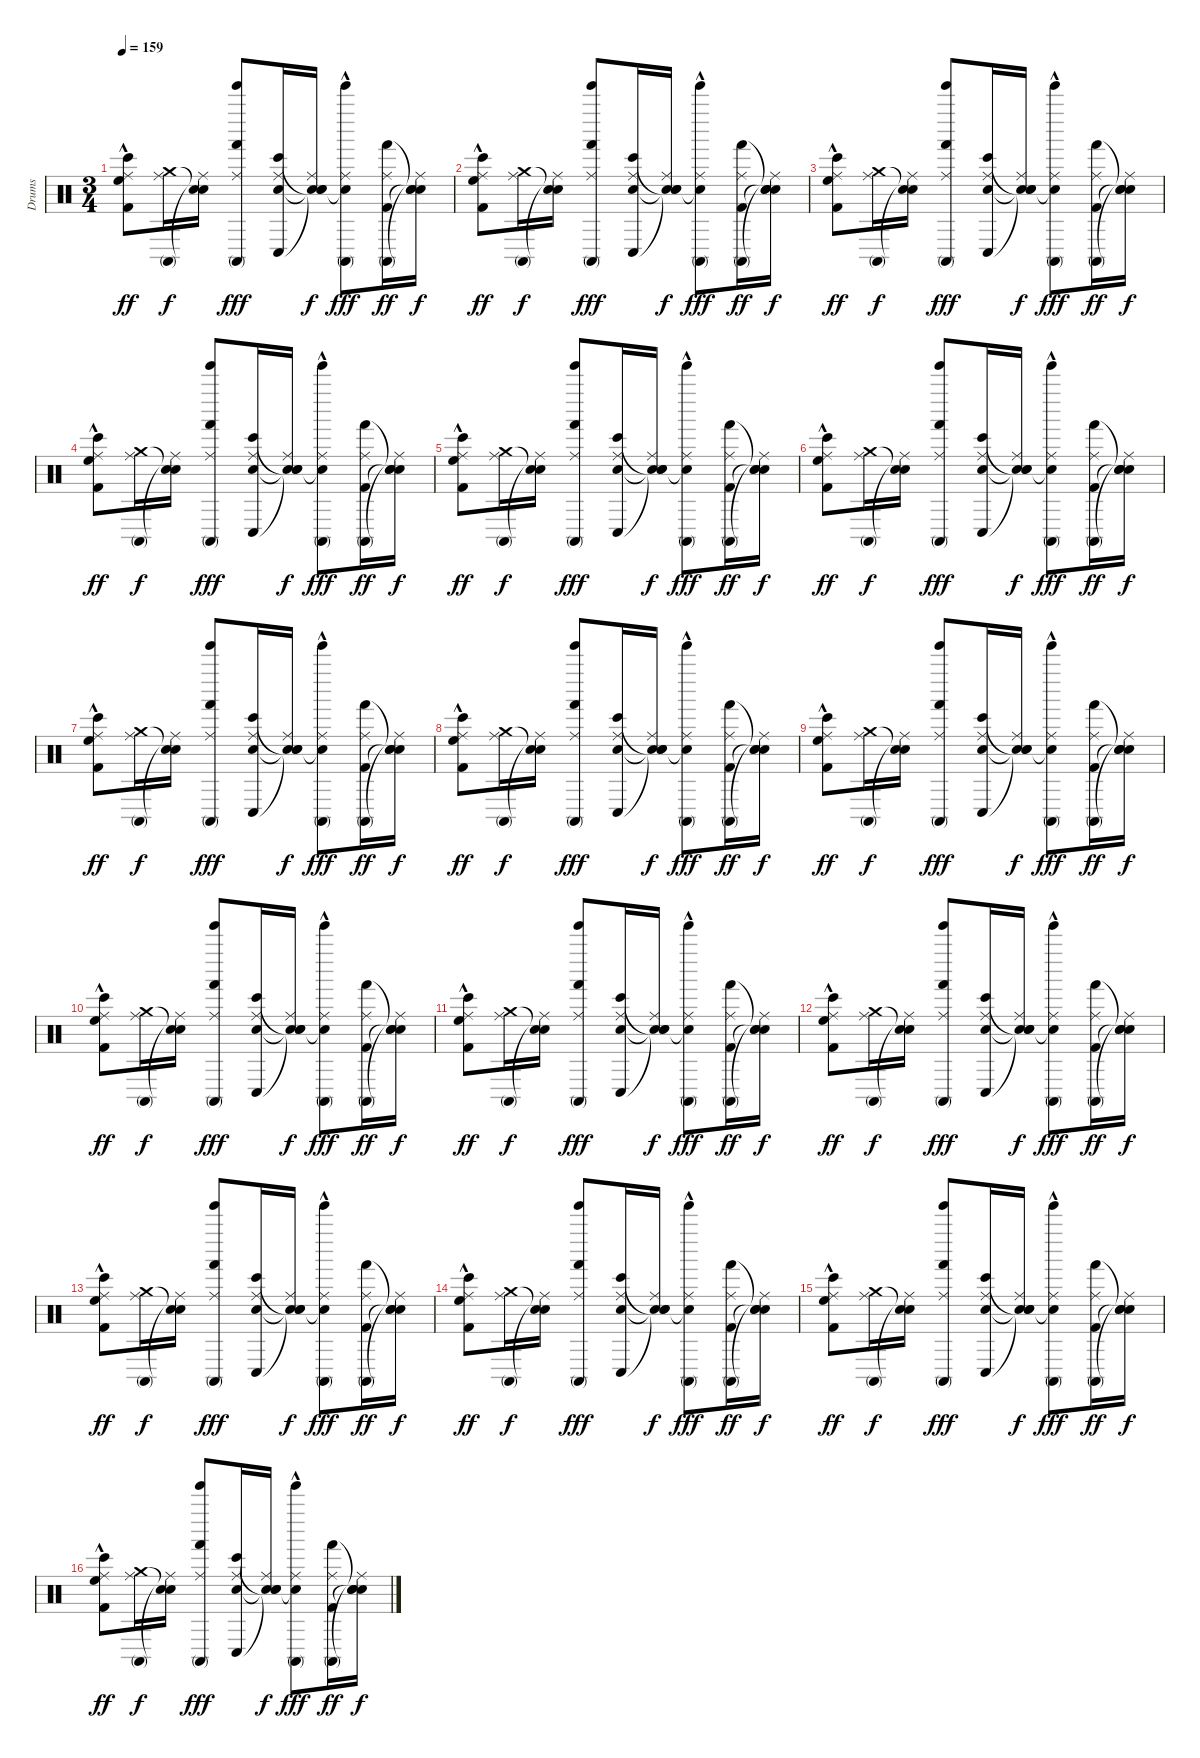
\track ("Drums" "Drums") {instrument percussion}
\staff {score}
\articulation defaults
\ts (3 4)
\tempo 159
\clef neutral
\ks c
("Kick (hit) 2" "Bongo High (hit)"{hac} "Ride (middle)" "High Floor Tom (hit)").8{dy ff} ("Conga high (mute)" "Ride (middle)" "Crash medium (hit)").16{dy f} ("Snare (hit)"{t} "Ride (middle)" "Snare (hit)"{t}).16 ("Tinkle Bell (hit)" "Hand (hit)" "Ride (middle)" "Conga high (mute)").8{dy fff} ("Snare (hit) 2" "Bongo High (hit)" "Ride (middle)" "Conga low (hit)").16 ("Snare (hit)"{t} "Snare (hit)"{t} "Ride (middle)" "Snare (hit)"{t}).16{dy f} ("Tinkle Bell (hit)" "Conga high (mute)"{hac} "Ride (middle)" "Snare (hit)"{t}).8{dy fff} ("Kick (hit) 2" "Hand (hit)" "Ride (middle)" "Conga high (mute)").16{dy ff} ("Snare (hit)"{t} "Snare (hit)"{t} "Ride (middle)" "Snare (hit)"{t}).16{dy f} |
("Kick (hit) 2" "Bongo High (hit)"{hac} "Ride (middle)" "High Floor Tom (hit)").8{dy ff} ("Conga high (mute)" "Ride (middle)" "Crash medium (hit)").16{dy f} ("Snare (hit)"{t} "Ride (middle)" "Snare (hit)"{t}).16 ("Tinkle Bell (hit)" "Hand (hit)" "Ride (middle)" "Conga high (mute)").8{dy fff} ("Snare (hit) 2" "Bongo High (hit)" "Ride (middle)" "Conga low (hit)").16 ("Snare (hit)"{t} "Snare (hit)"{t} "Ride (middle)" "Snare (hit)"{t}).16{dy f} ("Tinkle Bell (hit)" "Conga high (mute)"{hac} "Ride (middle)" "Snare (hit)"{t}).8{dy fff} ("Kick (hit) 2" "Hand (hit)" "Ride (middle)" "Conga high (mute)").16{dy ff} ("Snare (hit)"{t} "Snare (hit)"{t} "Ride (middle)" "Snare (hit)"{t}).16{dy f} |
("Kick (hit) 2" "Bongo High (hit)"{hac} "Ride (middle)" "High Floor Tom (hit)").8{dy ff} ("Conga high (mute)" "Ride (middle)" "Crash medium (hit)").16{dy f} ("Snare (hit)"{t} "Ride (middle)" "Snare (hit)"{t}).16 ("Tinkle Bell (hit)" "Hand (hit)" "Ride (middle)" "Conga high (mute)").8{dy fff} ("Snare (hit) 2" "Bongo High (hit)" "Ride (middle)" "Conga low (hit)").16 ("Snare (hit)"{t} "Snare (hit)"{t} "Ride (middle)" "Snare (hit)"{t}).16{dy f} ("Tinkle Bell (hit)" "Conga high (mute)"{hac} "Ride (middle)" "Snare (hit)"{t}).8{dy fff} ("Kick (hit) 2" "Hand (hit)" "Ride (middle)" "Conga high (mute)").16{dy ff} ("Snare (hit)"{t} "Snare (hit)"{t} "Ride (middle)" "Snare (hit)"{t}).16{dy f} |
("Kick (hit) 2" "Bongo High (hit)"{hac} "Ride (middle)" "High Floor Tom (hit)").8{dy ff} ("Conga high (mute)" "Ride (middle)" "Crash medium (hit)").16{dy f} ("Snare (hit)"{t} "Ride (middle)" "Snare (hit)"{t}).16 ("Tinkle Bell (hit)" "Hand (hit)" "Ride (middle)" "Conga high (mute)").8{dy fff} ("Snare (hit) 2" "Bongo High (hit)" "Ride (middle)" "Conga low (hit)").16 ("Snare (hit)"{t} "Snare (hit)"{t} "Ride (middle)" "Snare (hit)"{t}).16{dy f} ("Tinkle Bell (hit)" "Conga high (mute)"{hac} "Ride (middle)" "Snare (hit)"{t}).8{dy fff} ("Kick (hit) 2" "Hand (hit)" "Ride (middle)" "Conga high (mute)").16{dy ff} ("Snare (hit)"{t} "Snare (hit)"{t} "Ride (middle)" "Snare (hit)"{t}).16{dy f} |
("Kick (hit) 2" "Bongo High (hit)"{hac} "Ride (middle)" "High Floor Tom (hit)").8{dy ff} ("Conga high (mute)" "Ride (middle)" "Crash medium (hit)").16{dy f} ("Snare (hit)"{t} "Ride (middle)" "Snare (hit)"{t}).16 ("Tinkle Bell (hit)" "Hand (hit)" "Ride (middle)" "Conga high (mute)").8{dy fff} ("Snare (hit) 2" "Bongo High (hit)" "Ride (middle)" "Conga low (hit)").16 ("Snare (hit)"{t} "Snare (hit)"{t} "Ride (middle)" "Snare (hit)"{t}).16{dy f} ("Tinkle Bell (hit)" "Conga high (mute)"{hac} "Ride (middle)" "Snare (hit)"{t}).8{dy fff} ("Kick (hit) 2" "Hand (hit)" "Ride (middle)" "Conga high (mute)").16{dy ff} ("Snare (hit)"{t} "Snare (hit)"{t} "Ride (middle)" "Snare (hit)"{t}).16{dy f} |
("Kick (hit) 2" "Bongo High (hit)"{hac} "Ride (middle)" "High Floor Tom (hit)").8{dy ff} ("Conga high (mute)" "Ride (middle)" "Crash medium (hit)").16{dy f} ("Snare (hit)"{t} "Ride (middle)" "Snare (hit)"{t}).16 ("Tinkle Bell (hit)" "Hand (hit)" "Ride (middle)" "Conga high (mute)").8{dy fff} ("Snare (hit) 2" "Bongo High (hit)" "Ride (middle)" "Conga low (hit)").16 ("Snare (hit)"{t} "Snare (hit)"{t} "Ride (middle)" "Snare (hit)"{t}).16{dy f} ("Tinkle Bell (hit)" "Conga high (mute)"{hac} "Ride (middle)" "Snare (hit)"{t}).8{dy fff} ("Kick (hit) 2" "Hand (hit)" "Ride (middle)" "Conga high (mute)").16{dy ff} ("Snare (hit)"{t} "Snare (hit)"{t} "Ride (middle)" "Snare (hit)"{t}).16{dy f} |
("Kick (hit) 2" "Bongo High (hit)"{hac} "Ride (middle)" "High Floor Tom (hit)").8{dy ff} ("Conga high (mute)" "Ride (middle)" "Crash medium (hit)").16{dy f} ("Snare (hit)"{t} "Ride (middle)" "Snare (hit)"{t}).16 ("Tinkle Bell (hit)" "Hand (hit)" "Ride (middle)" "Conga high (mute)").8{dy fff} ("Snare (hit) 2" "Bongo High (hit)" "Ride (middle)" "Conga low (hit)").16 ("Snare (hit)"{t} "Snare (hit)"{t} "Ride (middle)" "Snare (hit)"{t}).16{dy f} ("Tinkle Bell (hit)" "Conga high (mute)"{hac} "Ride (middle)" "Snare (hit)"{t}).8{dy fff} ("Kick (hit) 2" "Hand (hit)" "Ride (middle)" "Conga high (mute)").16{dy ff} ("Snare (hit)"{t} "Snare (hit)"{t} "Ride (middle)" "Snare (hit)"{t}).16{dy f} |
("Kick (hit) 2" "Bongo High (hit)"{hac} "Ride (middle)" "High Floor Tom (hit)").8{dy ff} ("Conga high (mute)" "Ride (middle)" "Crash medium (hit)").16{dy f} ("Snare (hit)"{t} "Ride (middle)" "Snare (hit)"{t}).16 ("Tinkle Bell (hit)" "Hand (hit)" "Ride (middle)" "Conga high (mute)").8{dy fff} ("Snare (hit) 2" "Bongo High (hit)" "Ride (middle)" "Conga low (hit)").16 ("Snare (hit)"{t} "Snare (hit)"{t} "Ride (middle)" "Snare (hit)"{t}).16{dy f} ("Tinkle Bell (hit)" "Conga high (mute)"{hac} "Ride (middle)" "Snare (hit)"{t}).8{dy fff} ("Kick (hit) 2" "Hand (hit)" "Ride (middle)" "Conga high (mute)").16{dy ff} ("Snare (hit)"{t} "Snare (hit)"{t} "Ride (middle)" "Snare (hit)"{t}).16{dy f} |
("Kick (hit) 2" "Bongo High (hit)"{hac} "Ride (middle)" "High Floor Tom (hit)").8{dy ff} ("Conga high (mute)" "Ride (middle)" "Crash medium (hit)").16{dy f} ("Snare (hit)"{t} "Ride (middle)" "Snare (hit)"{t}).16 ("Tinkle Bell (hit)" "Hand (hit)" "Ride (middle)" "Conga high (mute)").8{dy fff} ("Snare (hit) 2" "Bongo High (hit)" "Ride (middle)" "Conga low (hit)").16 ("Snare (hit)"{t} "Snare (hit)"{t} "Ride (middle)" "Snare (hit)"{t}).16{dy f} ("Tinkle Bell (hit)" "Conga high (mute)"{hac} "Ride (middle)" "Snare (hit)"{t}).8{dy fff} ("Kick (hit) 2" "Hand (hit)" "Ride (middle)" "Conga high (mute)").16{dy ff} ("Snare (hit)"{t} "Snare (hit)"{t} "Ride (middle)" "Snare (hit)"{t}).16{dy f} |
("Kick (hit) 2" "Bongo High (hit)"{hac} "Ride (middle)" "High Floor Tom (hit)").8{dy ff} ("Conga high (mute)" "Ride (middle)" "Crash medium (hit)").16{dy f} ("Snare (hit)"{t} "Ride (middle)" "Snare (hit)"{t}).16 ("Tinkle Bell (hit)" "Hand (hit)" "Ride (middle)" "Conga high (mute)").8{dy fff} ("Snare (hit) 2" "Bongo High (hit)" "Ride (middle)" "Conga low (hit)").16 ("Snare (hit)"{t} "Snare (hit)"{t} "Ride (middle)" "Snare (hit)"{t}).16{dy f} ("Tinkle Bell (hit)" "Conga high (mute)"{hac} "Ride (middle)" "Snare (hit)"{t}).8{dy fff} ("Kick (hit) 2" "Hand (hit)" "Ride (middle)" "Conga high (mute)").16{dy ff} ("Snare (hit)"{t} "Snare (hit)"{t} "Ride (middle)" "Snare (hit)"{t}).16{dy f} |
("Kick (hit) 2" "Bongo High (hit)"{hac} "Ride (middle)" "High Floor Tom (hit)").8{dy ff} ("Conga high (mute)" "Ride (middle)" "Crash medium (hit)").16{dy f} ("Snare (hit)"{t} "Ride (middle)" "Snare (hit)"{t}).16 ("Tinkle Bell (hit)" "Hand (hit)" "Ride (middle)" "Conga high (mute)").8{dy fff} ("Snare (hit) 2" "Bongo High (hit)" "Ride (middle)" "Conga low (hit)").16 ("Snare (hit)"{t} "Snare (hit)"{t} "Ride (middle)" "Snare (hit)"{t}).16{dy f} ("Tinkle Bell (hit)" "Conga high (mute)"{hac} "Ride (middle)" "Snare (hit)"{t}).8{dy fff} ("Kick (hit) 2" "Hand (hit)" "Ride (middle)" "Conga high (mute)").16{dy ff} ("Snare (hit)"{t} "Snare (hit)"{t} "Ride (middle)" "Snare (hit)"{t}).16{dy f} |
("Kick (hit) 2" "Bongo High (hit)"{hac} "Ride (middle)" "High Floor Tom (hit)").8{dy ff} ("Conga high (mute)" "Ride (middle)" "Crash medium (hit)").16{dy f} ("Snare (hit)"{t} "Ride (middle)" "Snare (hit)"{t}).16 ("Tinkle Bell (hit)" "Hand (hit)" "Ride (middle)" "Conga high (mute)").8{dy fff} ("Snare (hit) 2" "Bongo High (hit)" "Ride (middle)" "Conga low (hit)").16 ("Snare (hit)"{t} "Snare (hit)"{t} "Ride (middle)" "Snare (hit)"{t}).16{dy f} ("Tinkle Bell (hit)" "Conga high (mute)"{hac} "Ride (middle)" "Snare (hit)"{t}).8{dy fff} ("Kick (hit) 2" "Hand (hit)" "Ride (middle)" "Conga high (mute)").16{dy ff} ("Snare (hit)"{t} "Snare (hit)"{t} "Ride (middle)" "Snare (hit)"{t}).16{dy f} |
("Kick (hit) 2" "Bongo High (hit)"{hac} "Ride (middle)" "High Floor Tom (hit)").8{dy ff} ("Conga high (mute)" "Ride (middle)" "Crash medium (hit)").16{dy f} ("Snare (hit)"{t} "Ride (middle)" "Snare (hit)"{t}).16 ("Tinkle Bell (hit)" "Hand (hit)" "Ride (middle)" "Conga high (mute)").8{dy fff} ("Snare (hit) 2" "Bongo High (hit)" "Ride (middle)" "Conga low (hit)").16 ("Snare (hit)"{t} "Snare (hit)"{t} "Ride (middle)" "Snare (hit)"{t}).16{dy f} ("Tinkle Bell (hit)" "Conga high (mute)"{hac} "Ride (middle)" "Snare (hit)"{t}).8{dy fff} ("Kick (hit) 2" "Hand (hit)" "Ride (middle)" "Conga high (mute)").16{dy ff} ("Snare (hit)"{t} "Snare (hit)"{t} "Ride (middle)" "Snare (hit)"{t}).16{dy f} |
("Kick (hit) 2" "Bongo High (hit)"{hac} "Ride (middle)" "High Floor Tom (hit)").8{dy ff} ("Conga high (mute)" "Ride (middle)" "Crash medium (hit)").16{dy f} ("Snare (hit)"{t} "Ride (middle)" "Snare (hit)"{t}).16 ("Tinkle Bell (hit)" "Hand (hit)" "Ride (middle)" "Conga high (mute)").8{dy fff} ("Snare (hit) 2" "Bongo High (hit)" "Ride (middle)" "Conga low (hit)").16 ("Snare (hit)"{t} "Snare (hit)"{t} "Ride (middle)" "Snare (hit)"{t}).16{dy f} ("Tinkle Bell (hit)" "Conga high (mute)"{hac} "Ride (middle)" "Snare (hit)"{t}).8{dy fff} ("Kick (hit) 2" "Hand (hit)" "Ride (middle)" "Conga high (mute)").16{dy ff} ("Snare (hit)"{t} "Snare (hit)"{t} "Ride (middle)" "Snare (hit)"{t}).16{dy f} |
("Kick (hit) 2" "Bongo High (hit)"{hac} "Ride (middle)" "High Floor Tom (hit)").8{dy ff} ("Conga high (mute)" "Ride (middle)" "Crash medium (hit)").16{dy f} ("Snare (hit)"{t} "Ride (middle)" "Snare (hit)"{t}).16 ("Tinkle Bell (hit)" "Hand (hit)" "Ride (middle)" "Conga high (mute)").8{dy fff} ("Snare (hit) 2" "Bongo High (hit)" "Ride (middle)" "Conga low (hit)").16 ("Snare (hit)"{t} "Snare (hit)"{t} "Ride (middle)" "Snare (hit)"{t}).16{dy f} ("Tinkle Bell (hit)" "Conga high (mute)"{hac} "Ride (middle)" "Snare (hit)"{t}).8{dy fff} ("Kick (hit) 2" "Hand (hit)" "Ride (middle)" "Conga high (mute)").16{dy ff} ("Snare (hit)"{t} "Snare (hit)"{t} "Ride (middle)" "Snare (hit)"{t}).16{dy f} |
("Kick (hit) 2" "Bongo High (hit)"{hac} "Ride (middle)" "High Floor Tom (hit)").8{dy ff} ("Conga high (mute)" "Ride (middle)" "Crash medium (hit)").16{dy f} ("Snare (hit)"{t} "Ride (middle)" "Snare (hit)"{t}).16 ("Tinkle Bell (hit)" "Hand (hit)" "Ride (middle)" "Conga high (mute)").8{dy fff} ("Snare (hit) 2" "Bongo High (hit)" "Ride (middle)" "Conga low (hit)").16 ("Snare (hit)"{t} "Snare (hit)"{t} "Ride (middle)" "Snare (hit)"{t}).16{dy f} ("Tinkle Bell (hit)" "Conga high (mute)"{hac} "Ride (middle)" "Snare (hit)"{t}).8{dy fff} ("Kick (hit) 2" "Hand (hit)" "Ride (middle)" "Conga high (mute)").16{dy ff} ("Snare (hit)"{t} "Snare (hit)"{t} "Ride (middle)" "Snare (hit)"{t}).16{dy f}
